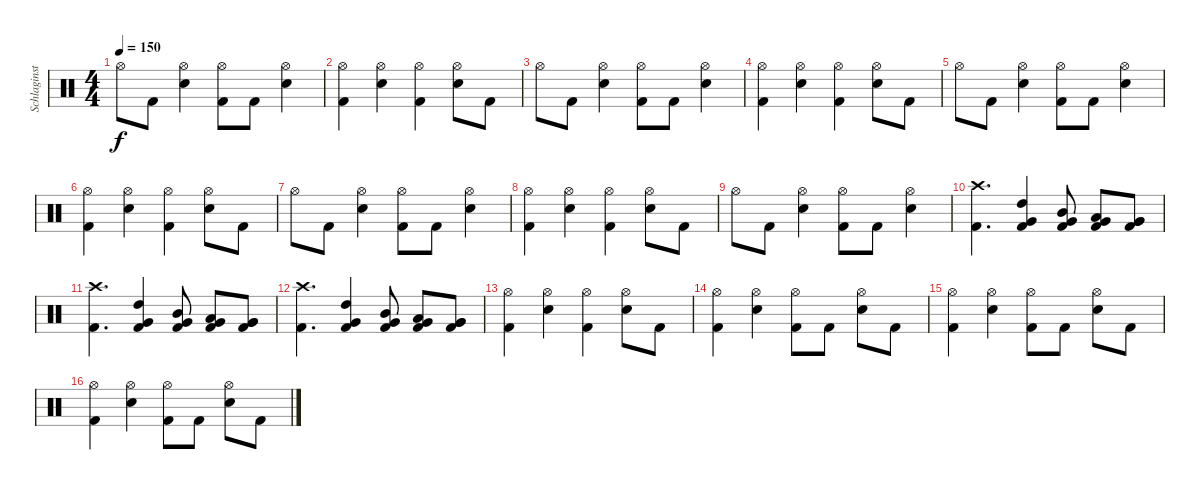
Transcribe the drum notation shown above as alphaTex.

\track ("Schlaginstrumente - Auswahl" "Schlaginst") {instrument percussion}
\staff {score}
\articulation defaults
\ts (4 4)
\tempo 150
\clef neutral
\ks c "Hi-Hat (open)".8{dy f} "Kick (hit) 2".8
("Snare (hit) 2" "Hi-Hat (open)").4 ("Kick (hit) 2" "Hi-Hat (open)").8 "Kick (hit) 2".8 ("Snare (hit) 2" "Hi-Hat (open)").4 |
("Hi-Hat (open)" "Kick (hit) 2").4 ("Snare (hit) 2" "Hi-Hat (open)").4 ("Kick (hit) 2" "Hi-Hat (open)").4 ("Snare (hit) 2" "Hi-Hat (open)").8 "Kick (hit) 2".8 |
"Hi-Hat (open)".8 "Kick (hit) 2".8 ("Snare (hit) 2" "Hi-Hat (open)").4 ("Kick (hit) 2" "Hi-Hat (open)").8 "Kick (hit) 2".8 ("Snare (hit) 2" "Hi-Hat (open)").4 |
("Hi-Hat (open)" "Kick (hit) 2").4 ("Snare (hit) 2" "Hi-Hat (open)").4 ("Kick (hit) 2" "Hi-Hat (open)").4 ("Snare (hit) 2" "Hi-Hat (open)").8 "Kick (hit) 2".8 |
"Hi-Hat (open)".8 "Kick (hit) 2".8 ("Snare (hit) 2" "Hi-Hat (open)").4 ("Kick (hit) 2" "Hi-Hat (open)").8 "Kick (hit) 2".8 ("Snare (hit) 2" "Hi-Hat (open)").4 |
("Hi-Hat (open)" "Kick (hit) 2").4 ("Snare (hit) 2" "Hi-Hat (open)").4 ("Kick (hit) 2" "Hi-Hat (open)").4 ("Snare (hit) 2" "Hi-Hat (open)").8 "Kick (hit) 2".8 |
"Hi-Hat (open)".8 "Kick (hit) 2".8 ("Snare (hit) 2" "Hi-Hat (open)").4 ("Kick (hit) 2" "Hi-Hat (open)").8 "Kick (hit) 2".8 ("Snare (hit) 2" "Hi-Hat (open)").4 |
("Hi-Hat (open)" "Kick (hit) 2").4 ("Snare (hit) 2" "Hi-Hat (open)").4 ("Kick (hit) 2" "Hi-Hat (open)").4 ("Snare (hit) 2" "Hi-Hat (open)").8 "Kick (hit) 2".8 |
"Hi-Hat (open)".8 "Kick (hit) 2".8 ("Snare (hit) 2" "Hi-Hat (open)").4 ("Kick (hit) 2" "Hi-Hat (open)").8 "Kick (hit) 2".8 ("Snare (hit) 2" "Hi-Hat (open)").4 |
("Crash high (hit)" "Kick (hit) 2").4{d volume 13} ("High Tom (hit)" "Very Low Tom (hit)" "Kick (hit) 2").4 ("Mid Tom (hit)" "Very Low Tom (hit)" "Kick (hit) 2").8 ("Low Tom (hit)" "Very Low Tom (hit)" "Kick (hit) 2").8 ("Very Low Tom (hit)" "Very Low Tom (hit)" "Kick (hit) 2").8 |
("Crash high (hit)" "Kick (hit) 2").4{d} ("High Tom (hit)" "Very Low Tom (hit)" "Kick (hit) 2").4 ("Mid Tom (hit)" "Very Low Tom (hit)" "Kick (hit) 2").8 ("Low Tom (hit)" "Very Low Tom (hit)" "Kick (hit) 2").8 ("Very Low Tom (hit)" "Very Low Tom (hit)" "Kick (hit) 2").8 |
("Crash high (hit)" "Kick (hit) 2").4{d} ("High Tom (hit)" "Very Low Tom (hit)" "Kick (hit) 2").4 ("Mid Tom (hit)" "Very Low Tom (hit)" "Kick (hit) 2").8 ("Low Tom (hit)" "Very Low Tom (hit)" "Kick (hit) 2").8 ("Very Low Tom (hit)" "Very Low Tom (hit)" "Kick (hit) 2").8 |
("Hi-Hat (open)" "Kick (hit) 2").4{volume 11} ("Snare (hit) 2" "Hi-Hat (open)").4 ("Kick (hit) 2" "Hi-Hat (open)").4 ("Snare (hit) 2" "Hi-Hat (open)").8 "Kick (hit) 2".8 |
("Hi-Hat (open)" "Kick (hit) 2").4 ("Snare (hit) 2" "Hi-Hat (open)").4 ("Kick (hit) 2" "Hi-Hat (open)").8 "Kick (hit) 2".8 ("Snare (hit) 2" "Hi-Hat (open)").8 "Kick (hit) 2".8 |
("Hi-Hat (open)" "Kick (hit) 2").4 ("Snare (hit) 2" "Hi-Hat (open)").4 ("Kick (hit) 2" "Hi-Hat (open)").8 "Kick (hit) 2".8 ("Snare (hit) 2" "Hi-Hat (open)").8 "Kick (hit) 2".8 |
("Hi-Hat (open)" "Kick (hit) 2").4 ("Snare (hit) 2" "Hi-Hat (open)").4 ("Kick (hit) 2" "Hi-Hat (open)").8 "Kick (hit) 2".8 ("Snare (hit) 2" "Hi-Hat (open)").8 "Kick (hit) 2".8
